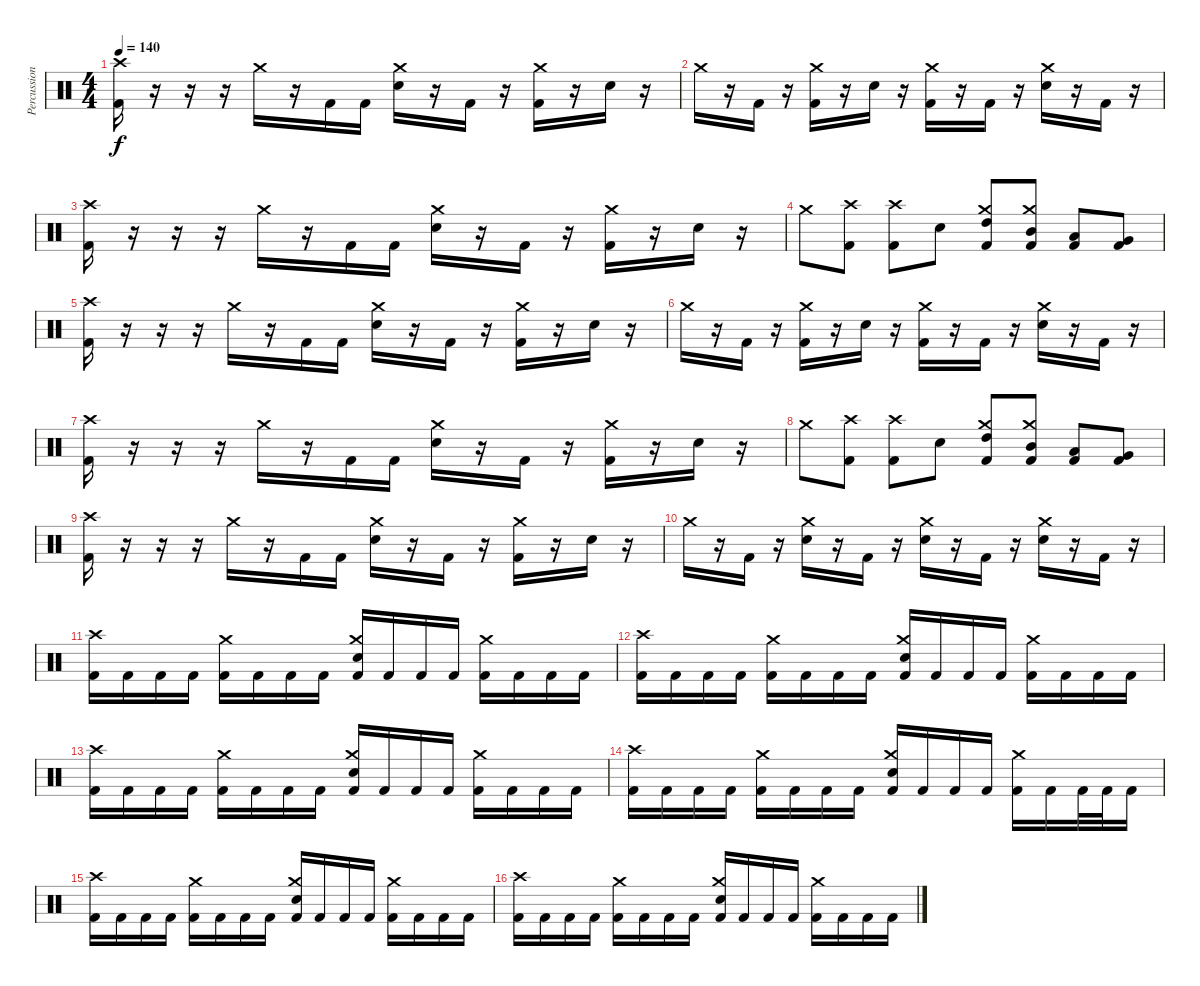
\track ("Percussion" "Percussion") {instrument percussion}
\staff {score}
\articulation defaults
\ts (4 4)
\tempo 140
\clef neutral
\ks c
("Crash high (hit)" "Kick (hit) 2").16{dy f} r.16 r.16 r.16 "Crash medium (hit)".16 r.16 "Kick (hit) 2".16 "Kick (hit) 2".16 ("Crash medium (hit)" "Snare (hit) 2").16 r.16 "Kick (hit) 2".16 r.16 ("Crash medium (hit)" "Kick (hit) 2").16 r.16 "Snare (hit) 2".16 r.16 |
"Crash medium (hit)".16 r.16 "Kick (hit) 2".16 r.16 ("Crash medium (hit)" "Kick (hit) 2").16 r.16 "Snare (hit) 2".16 r.16 ("Crash medium (hit)" "Kick (hit) 2").16 r.16 "Kick (hit) 2".16 r.16 ("Crash medium (hit)" "Snare (hit) 2").16 r.16 "Kick (hit) 2".16 r.16 |
("Crash high (hit)" "Kick (hit) 2").16 r.16 r.16 r.16 "Crash medium (hit)".16 r.16 "Kick (hit) 2".16 "Kick (hit) 2".16 ("Crash medium (hit)" "Snare (hit) 2").16 r.16 "Kick (hit) 2".16 r.16 ("Crash medium (hit)" "Kick (hit) 2").16 r.16 "Snare (hit) 2".16 r.16 |
"Crash medium (hit)".8 ("Crash high (hit)" "Kick (hit) 2").8 ("Crash high (hit)" "Kick (hit) 2").8 "Snare (hit) 2".8 ("Crash medium (hit)" "High Tom (hit)" "Kick (hit) 2").8 ("Crash medium (hit)" "Mid Tom (hit)" "Kick (hit) 2").8 ("Low Tom (hit)" "Kick (hit) 2").8 ("Very Low Tom (hit)" "Kick (hit) 2").8 |
("Crash high (hit)" "Kick (hit) 2").16 r.16 r.16 r.16 "Crash medium (hit)".16 r.16 "Kick (hit) 2".16 "Kick (hit) 2".16 ("Crash medium (hit)" "Snare (hit) 2").16 r.16 "Kick (hit) 2".16 r.16 ("Crash medium (hit)" "Kick (hit) 2").16 r.16 "Snare (hit) 2".16 r.16 |
"Crash medium (hit)".16 r.16 "Kick (hit) 2".16 r.16 ("Crash medium (hit)" "Kick (hit) 2").16 r.16 "Snare (hit) 2".16 r.16 ("Crash medium (hit)" "Kick (hit) 2").16 r.16 "Kick (hit) 2".16 r.16 ("Crash medium (hit)" "Snare (hit) 2").16 r.16 "Kick (hit) 2".16 r.16 |
("Crash high (hit)" "Kick (hit) 2").16 r.16 r.16 r.16 "Crash medium (hit)".16 r.16 "Kick (hit) 2".16 "Kick (hit) 2".16 ("Crash medium (hit)" "Snare (hit) 2").16 r.16 "Kick (hit) 2".16 r.16 ("Crash medium (hit)" "Kick (hit) 2").16 r.16 "Snare (hit) 2".16 r.16 |
"Crash medium (hit)".8 ("Crash high (hit)" "Kick (hit) 2").8 ("Crash high (hit)" "Kick (hit) 2").8 "Snare (hit) 2".8 ("Crash medium (hit)" "High Tom (hit)" "Kick (hit) 2").8 ("Crash medium (hit)" "Mid Tom (hit)" "Kick (hit) 2").8 ("Low Tom (hit)" "Kick (hit) 2").8 ("Very Low Tom (hit)" "Kick (hit) 2").8 |
("Crash high (hit)" "Kick (hit) 2").16 r.16 r.16 r.16 "Crash medium (hit)".16 r.16 "Kick (hit) 2".16 "Kick (hit) 2".16 ("Crash medium (hit)" "Snare (hit) 2").16 r.16 "Kick (hit) 2".16 r.16 ("Crash medium (hit)" "Kick (hit) 2").16 r.16 "Snare (hit) 2".16 r.16 |
"Crash medium (hit)".16 r.16 "Kick (hit) 2".16 r.16 ("Crash medium (hit)" "Snare (hit) 2").16 r.16 "Kick (hit) 2".16 r.16 ("Crash medium (hit)" "Snare (hit) 2").16 r.16 "Kick (hit) 2".16 r.16 ("Crash medium (hit)" "Snare (hit) 2").16 r.16 "Kick (hit) 2".16 r.16 |
("Crash high (hit)" "Kick (hit) 2").16 "Kick (hit) 2".16 "Kick (hit) 2".16 "Kick (hit) 2".16 ("Crash medium (hit)" "Kick (hit) 2").16 "Kick (hit) 2".16 "Kick (hit) 2".16 "Kick (hit) 2".16 ("Crash medium (hit)" "Snare (hit) 2" "Kick (hit) 2").16 "Kick (hit) 2".16 "Kick (hit) 2".16 "Kick (hit) 2".16 ("Crash medium (hit)" "Kick (hit) 2").16 "Kick (hit) 2".16 "Kick (hit) 2".16 "Kick (hit) 2".16 |
("Crash high (hit)" "Kick (hit) 2").16 "Kick (hit) 2".16 "Kick (hit) 2".16 "Kick (hit) 2".16 ("Crash medium (hit)" "Kick (hit) 2").16 "Kick (hit) 2".16 "Kick (hit) 2".16 "Kick (hit) 2".16 ("Crash medium (hit)" "Snare (hit) 2" "Kick (hit) 2").16 "Kick (hit) 2".16 "Kick (hit) 2".16 "Kick (hit) 2".16 ("Crash medium (hit)" "Kick (hit) 2").16 "Kick (hit) 2".16 "Kick (hit) 2".16 "Kick (hit) 2".16 |
("Crash high (hit)" "Kick (hit) 2").16 "Kick (hit) 2".16 "Kick (hit) 2".16 "Kick (hit) 2".16 ("Crash medium (hit)" "Kick (hit) 2").16 "Kick (hit) 2".16 "Kick (hit) 2".16 "Kick (hit) 2".16 ("Crash medium (hit)" "Snare (hit) 2" "Kick (hit) 2").16 "Kick (hit) 2".16 "Kick (hit) 2".16 "Kick (hit) 2".16 ("Crash medium (hit)" "Kick (hit) 2").16 "Kick (hit) 2".16 "Kick (hit) 2".16 "Kick (hit) 2".16 |
("Crash high (hit)" "Kick (hit) 2").16 "Kick (hit) 2".16 "Kick (hit) 2".16 "Kick (hit) 2".16 ("Crash medium (hit)" "Kick (hit) 2").16 "Kick (hit) 2".16 "Kick (hit) 2".16 "Kick (hit) 2".16 ("Crash medium (hit)" "Snare (hit) 2" "Kick (hit) 2").16 "Kick (hit) 2".16 "Kick (hit) 2".16 "Kick (hit) 2".16 ("Crash medium (hit)" "Kick (hit) 2").16 "Kick (hit) 2".16 "Kick (hit) 2".32 "Kick (hit) 2".32 "Kick (hit) 2".16 |
("Crash high (hit)" "Kick (hit) 2").16 "Kick (hit) 2".16 "Kick (hit) 2".16 "Kick (hit) 2".16 ("Crash medium (hit)" "Kick (hit) 2").16 "Kick (hit) 2".16 "Kick (hit) 2".16 "Kick (hit) 2".16 ("Crash medium (hit)" "Snare (hit) 2" "Kick (hit) 2").16 "Kick (hit) 2".16 "Kick (hit) 2".16 "Kick (hit) 2".16 ("Crash medium (hit)" "Kick (hit) 2").16 "Kick (hit) 2".16 "Kick (hit) 2".16 "Kick (hit) 2".16 |
("Crash high (hit)" "Kick (hit) 2").16 "Kick (hit) 2".16 "Kick (hit) 2".16 "Kick (hit) 2".16 ("Crash medium (hit)" "Kick (hit) 2").16 "Kick (hit) 2".16 "Kick (hit) 2".16 "Kick (hit) 2".16 ("Crash medium (hit)" "Snare (hit) 2" "Kick (hit) 2").16 "Kick (hit) 2".16 "Kick (hit) 2".16 "Kick (hit) 2".16 ("Crash medium (hit)" "Kick (hit) 2").16 "Kick (hit) 2".16 "Kick (hit) 2".16 "Kick (hit) 2".16
